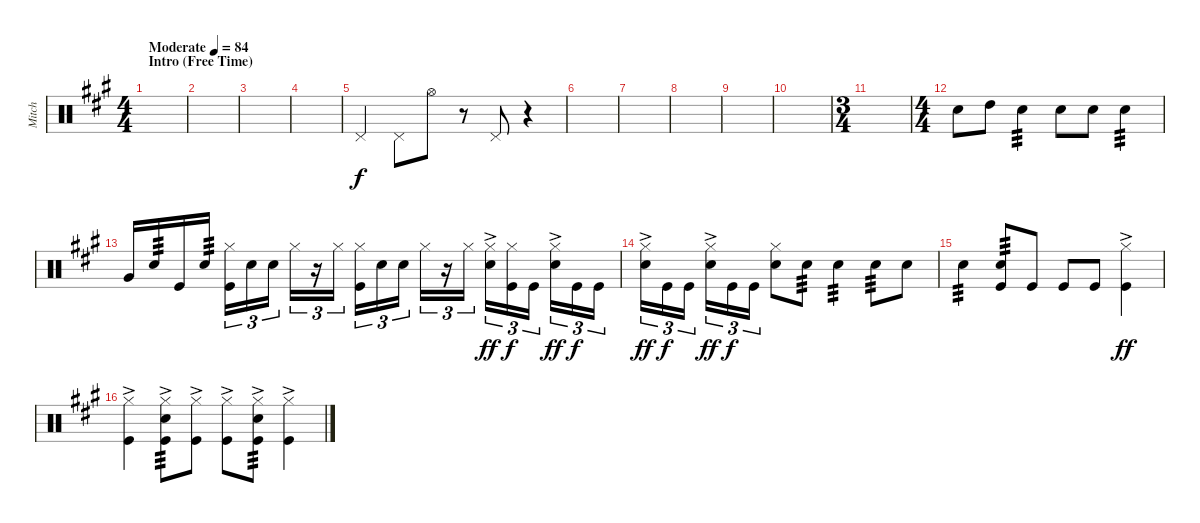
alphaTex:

\track ("Mitch" "Mitch") {instrument percussion}
\staff {score}
\articulation defaults
\ts (4 4)
\section ("" "Intro (Free Time)")
\tempo (84 "Moderate")
\clef neutral
\ks a
|
|
|
|
"Pedal Hi-Hat (hit)".4 "Pedal Hi-Hat (hit)".8 "Hi-Hat (open)".8 r.8 "Pedal Hi-Hat (hit)".8 r.4 |
|
|
|
|
|
\ts (3 4)
|
\ts (4 4)
"Snare (hit) 2".8{dy f} "High Tom (hit)".8 "Snare (hit) 2".4{tp 3} "Snare (hit) 2".8 "Snare (hit) 2".8 "Snare (hit) 2".4{tp 3} |
"Very Low Tom (hit)".16 "Snare (hit) 2".16{tp 3} "Kick (hit)".16 "Snare (hit) 2".16{tp 3} ("Hi-Hat (closed)" "Kick (hit)").16{tu (3 2)} "Snare (hit) 2".16{tu (3 2)} "Snare (hit) 2".16{tu (3 2) beam splitsecondary} "Hi-Hat (closed)".16{tu (3 2)} r.16{tu (3 2)} "Hi-Hat (closed)".16{tu (3 2)} ("Hi-Hat (closed)" "Kick (hit)").16{tu (3 2)} "Snare (hit) 2".16{tu (3 2)} "Snare (hit) 2".16{tu (3 2) beam splitsecondary} "Hi-Hat (closed)".16{tu (3 2)} r.16{tu (3 2)} "Hi-Hat (closed)".16{tu (3 2)} ("Hi-Hat (closed)"{ac} "Snare (hit) 2").16{tu (3 2) dy ff} ("Hi-Hat (closed)" "Kick (hit)").16{tu (3 2) dy f} "Kick (hit)".16{tu (3 2) beam splitsecondary} ("Hi-Hat (closed)"{ac} "Snare (hit) 2").16{tu (3 2) dy ff} "Kick (hit)".16{tu (3 2) dy f} "Kick (hit)".16{tu (3 2)} |
("Hi-Hat (closed)"{ac} "Snare (hit) 2").16{tu (3 2) dy ff} "Kick (hit)".16{tu (3 2) dy f} "Kick (hit)".16{tu (3 2) beam splitsecondary} ("Hi-Hat (closed)"{ac} "Snare (hit) 2").16{tu (3 2) dy ff} "Kick (hit)".16{tu (3 2) dy f} "Kick (hit)".16{tu (3 2)} ("Hi-Hat (closed)" "Snare (hit) 2").8 "Snare (hit) 2".8{tp 3} "Snare (hit) 2".4{tp 3} "Snare (hit) 2".8{tp 3} "Snare (hit) 2".8 |
"Snare (hit) 2".4{tp 3} ("Snare (hit) 2" "Kick (hit)").8{tp 3} "Kick (hit)".8 "Kick (hit)".8 "Kick (hit)".8 ("Hi-Hat (closed)"{ac} "Kick (hit)").4{dy ff} |
("Hi-Hat (closed)"{ac} "Kick (hit)").4 ("Hi-Hat (closed)"{ac} "Snare (hit) 2" "Kick (hit)").8{tp 3} ("Hi-Hat (closed)"{ac} "Kick (hit)").8 ("Hi-Hat (closed)"{ac} "Kick (hit)").8 ("Hi-Hat (closed)"{ac} "Snare (hit) 2" "Kick (hit)").8{tp 3} ("Hi-Hat (closed)"{ac} "Kick (hit)").4
